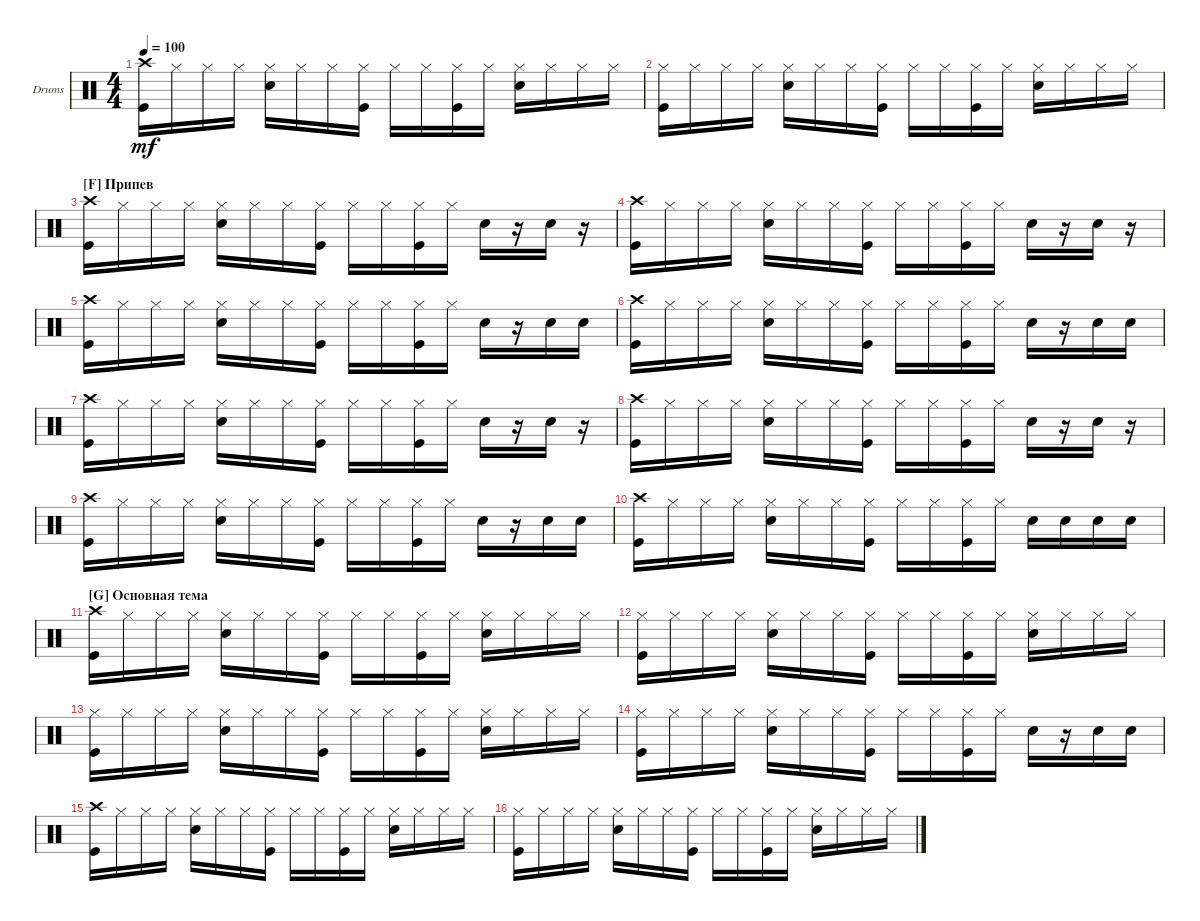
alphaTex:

\bracketExtendMode groupsimilarinstruments
\firstSystemTrackNameOrientation horizontal
\otherSystemsTrackNameOrientation horizontal
\track ("Drumkit" "Drums") {instrument percussion}
\staff {score}
\articulation defaults
\ts (4 4)
\tempo 100
\clef neutral
\ks c
("Kick (hit)" "Crash high (hit)").16{dy mf} "Hi-Hat (closed)".16 "Hi-Hat (closed)".16 "Hi-Hat (closed)".16 ("Hi-Hat (closed)" "Snare (hit) 2").16 "Hi-Hat (closed)".16 "Hi-Hat (closed)".16 ("Hi-Hat (closed)" "Kick (hit)").16 "Hi-Hat (closed)".16 "Hi-Hat (closed)".16 ("Hi-Hat (closed)" "Kick (hit)").16 "Hi-Hat (closed)".16 ("Hi-Hat (closed)" "Snare (hit) 2").16 "Hi-Hat (closed)".16 "Hi-Hat (closed)".16 "Hi-Hat (closed)".16 |
("Kick (hit)" "Hi-Hat (closed)").16 "Hi-Hat (closed)".16 "Hi-Hat (closed)".16 "Hi-Hat (closed)".16 ("Hi-Hat (closed)" "Snare (hit) 2").16 "Hi-Hat (closed)".16 "Hi-Hat (closed)".16 ("Hi-Hat (closed)" "Kick (hit)").16 "Hi-Hat (closed)".16 "Hi-Hat (closed)".16 ("Hi-Hat (closed)" "Kick (hit)").16 "Hi-Hat (closed)".16 ("Hi-Hat (closed)" "Snare (hit) 2").16 "Hi-Hat (closed)".16 "Hi-Hat (closed)".16 "Hi-Hat (closed)".16 |
\section ("F" "Припев")
("Kick (hit)" "Crash high (hit)").16 "Hi-Hat (closed)".16 "Hi-Hat (closed)".16 "Hi-Hat (closed)".16 ("Hi-Hat (closed)" "Snare (hit) 2").16 "Hi-Hat (closed)".16 "Hi-Hat (closed)".16 ("Hi-Hat (closed)" "Kick (hit)").16 "Hi-Hat (closed)".16 "Hi-Hat (closed)".16 ("Hi-Hat (closed)" "Kick (hit)").16 "Hi-Hat (closed)".16 "Snare (hit) 2".16 r.16 "Snare (hit) 2".16 r.16 |
("Kick (hit)" "Crash high (hit)").16 "Hi-Hat (closed)".16 "Hi-Hat (closed)".16 "Hi-Hat (closed)".16 ("Hi-Hat (closed)" "Snare (hit) 2").16 "Hi-Hat (closed)".16 "Hi-Hat (closed)".16 ("Hi-Hat (closed)" "Kick (hit)").16 "Hi-Hat (closed)".16 "Hi-Hat (closed)".16 ("Hi-Hat (closed)" "Kick (hit)").16 "Hi-Hat (closed)".16 "Snare (hit) 2".16 r.16 "Snare (hit) 2".16 r.16 |
("Kick (hit)" "Crash high (hit)").16 "Hi-Hat (closed)".16 "Hi-Hat (closed)".16 "Hi-Hat (closed)".16 ("Hi-Hat (closed)" "Snare (hit) 2").16 "Hi-Hat (closed)".16 "Hi-Hat (closed)".16 ("Hi-Hat (closed)" "Kick (hit)").16 "Hi-Hat (closed)".16 "Hi-Hat (closed)".16 ("Hi-Hat (closed)" "Kick (hit)").16 "Hi-Hat (closed)".16 "Snare (hit) 2".16 r.16 "Snare (hit) 2".16 "Snare (hit) 2".16 |
("Kick (hit)" "Crash high (hit)").16 "Hi-Hat (closed)".16 "Hi-Hat (closed)".16 "Hi-Hat (closed)".16 ("Hi-Hat (closed)" "Snare (hit) 2").16 "Hi-Hat (closed)".16 "Hi-Hat (closed)".16 ("Hi-Hat (closed)" "Kick (hit)").16 "Hi-Hat (closed)".16 "Hi-Hat (closed)".16 ("Hi-Hat (closed)" "Kick (hit)").16 "Hi-Hat (closed)".16 "Snare (hit) 2".16 r.16 "Snare (hit) 2".16 "Snare (hit) 2".16 |
("Kick (hit)" "Crash high (hit)").16 "Hi-Hat (closed)".16 "Hi-Hat (closed)".16 "Hi-Hat (closed)".16 ("Hi-Hat (closed)" "Snare (hit) 2").16 "Hi-Hat (closed)".16 "Hi-Hat (closed)".16 ("Hi-Hat (closed)" "Kick (hit)").16 "Hi-Hat (closed)".16 "Hi-Hat (closed)".16 ("Hi-Hat (closed)" "Kick (hit)").16 "Hi-Hat (closed)".16 "Snare (hit) 2".16 r.16 "Snare (hit) 2".16 r.16 |
("Kick (hit)" "Crash high (hit)").16 "Hi-Hat (closed)".16 "Hi-Hat (closed)".16 "Hi-Hat (closed)".16 ("Hi-Hat (closed)" "Snare (hit) 2").16 "Hi-Hat (closed)".16 "Hi-Hat (closed)".16 ("Hi-Hat (closed)" "Kick (hit)").16 "Hi-Hat (closed)".16 "Hi-Hat (closed)".16 ("Hi-Hat (closed)" "Kick (hit)").16 "Hi-Hat (closed)".16 "Snare (hit) 2".16 r.16 "Snare (hit) 2".16 r.16 |
("Kick (hit)" "Crash high (hit)").16 "Hi-Hat (closed)".16 "Hi-Hat (closed)".16 "Hi-Hat (closed)".16 ("Hi-Hat (closed)" "Snare (hit) 2").16 "Hi-Hat (closed)".16 "Hi-Hat (closed)".16 ("Hi-Hat (closed)" "Kick (hit)").16 "Hi-Hat (closed)".16 "Hi-Hat (closed)".16 ("Hi-Hat (closed)" "Kick (hit)").16 "Hi-Hat (closed)".16 "Snare (hit) 2".16 r.16 "Snare (hit) 2".16 "Snare (hit) 2".16 |
("Kick (hit)" "Crash high (hit)").16 "Hi-Hat (closed)".16 "Hi-Hat (closed)".16 "Hi-Hat (closed)".16 ("Hi-Hat (closed)" "Snare (hit) 2").16 "Hi-Hat (closed)".16 "Hi-Hat (closed)".16 ("Hi-Hat (closed)" "Kick (hit)").16 "Hi-Hat (closed)".16 "Hi-Hat (closed)".16 ("Hi-Hat (closed)" "Kick (hit)").16 "Hi-Hat (closed)".16 "Snare (hit) 2".16 "Snare (hit) 2".16 "Snare (hit) 2".16 "Snare (hit) 2".16 |
\section ("G" "Основная тема")
("Kick (hit)" "Crash high (hit)").16 "Hi-Hat (closed)".16 "Hi-Hat (closed)".16 "Hi-Hat (closed)".16 ("Hi-Hat (closed)" "Snare (hit) 2").16 "Hi-Hat (closed)".16 "Hi-Hat (closed)".16 ("Hi-Hat (closed)" "Kick (hit)").16 "Hi-Hat (closed)".16 "Hi-Hat (closed)".16 ("Hi-Hat (closed)" "Kick (hit)").16 "Hi-Hat (closed)".16 ("Hi-Hat (closed)" "Snare (hit) 2").16 "Hi-Hat (closed)".16 "Hi-Hat (closed)".16 "Hi-Hat (closed)".16 |
("Kick (hit)" "Hi-Hat (closed)").16 "Hi-Hat (closed)".16 "Hi-Hat (closed)".16 "Hi-Hat (closed)".16 ("Hi-Hat (closed)" "Snare (hit) 2").16 "Hi-Hat (closed)".16 "Hi-Hat (closed)".16 ("Hi-Hat (closed)" "Kick (hit)").16 "Hi-Hat (closed)".16 "Hi-Hat (closed)".16 ("Hi-Hat (closed)" "Kick (hit)").16 "Hi-Hat (closed)".16 ("Hi-Hat (closed)" "Snare (hit) 2").16 "Hi-Hat (closed)".16 "Hi-Hat (closed)".16 "Hi-Hat (closed)".16 |
("Kick (hit)" "Hi-Hat (closed)").16 "Hi-Hat (closed)".16 "Hi-Hat (closed)".16 "Hi-Hat (closed)".16 ("Hi-Hat (closed)" "Snare (hit) 2").16 "Hi-Hat (closed)".16 "Hi-Hat (closed)".16 ("Hi-Hat (closed)" "Kick (hit)").16 "Hi-Hat (closed)".16 "Hi-Hat (closed)".16 ("Hi-Hat (closed)" "Kick (hit)").16 "Hi-Hat (closed)".16 ("Hi-Hat (closed)" "Snare (hit) 2").16 "Hi-Hat (closed)".16 "Hi-Hat (closed)".16 "Hi-Hat (closed)".16 |
("Kick (hit)" "Hi-Hat (closed)").16 "Hi-Hat (closed)".16 "Hi-Hat (closed)".16 "Hi-Hat (closed)".16 ("Hi-Hat (closed)" "Snare (hit) 2").16 "Hi-Hat (closed)".16 "Hi-Hat (closed)".16 ("Hi-Hat (closed)" "Kick (hit)").16 "Hi-Hat (closed)".16 "Hi-Hat (closed)".16 ("Hi-Hat (closed)" "Kick (hit)").16 "Hi-Hat (closed)".16 "Snare (hit) 2".16 r.16 "Snare (hit) 2".16 "Snare (hit) 2".16 |
("Kick (hit)" "Crash high (hit)").16 "Hi-Hat (closed)".16 "Hi-Hat (closed)".16 "Hi-Hat (closed)".16 ("Hi-Hat (closed)" "Snare (hit) 2").16 "Hi-Hat (closed)".16 "Hi-Hat (closed)".16 ("Hi-Hat (closed)" "Kick (hit)").16 "Hi-Hat (closed)".16 "Hi-Hat (closed)".16 ("Hi-Hat (closed)" "Kick (hit)").16 "Hi-Hat (closed)".16 ("Hi-Hat (closed)" "Snare (hit) 2").16 "Hi-Hat (closed)".16 "Hi-Hat (closed)".16 "Hi-Hat (closed)".16 |
("Kick (hit)" "Hi-Hat (closed)").16 "Hi-Hat (closed)".16 "Hi-Hat (closed)".16 "Hi-Hat (closed)".16 ("Hi-Hat (closed)" "Snare (hit) 2").16 "Hi-Hat (closed)".16 "Hi-Hat (closed)".16 ("Hi-Hat (closed)" "Kick (hit)").16 "Hi-Hat (closed)".16 "Hi-Hat (closed)".16 ("Hi-Hat (closed)" "Kick (hit)").16 "Hi-Hat (closed)".16 ("Hi-Hat (closed)" "Snare (hit) 2").16 "Hi-Hat (closed)".16 "Hi-Hat (closed)".16 "Hi-Hat (closed)".16
